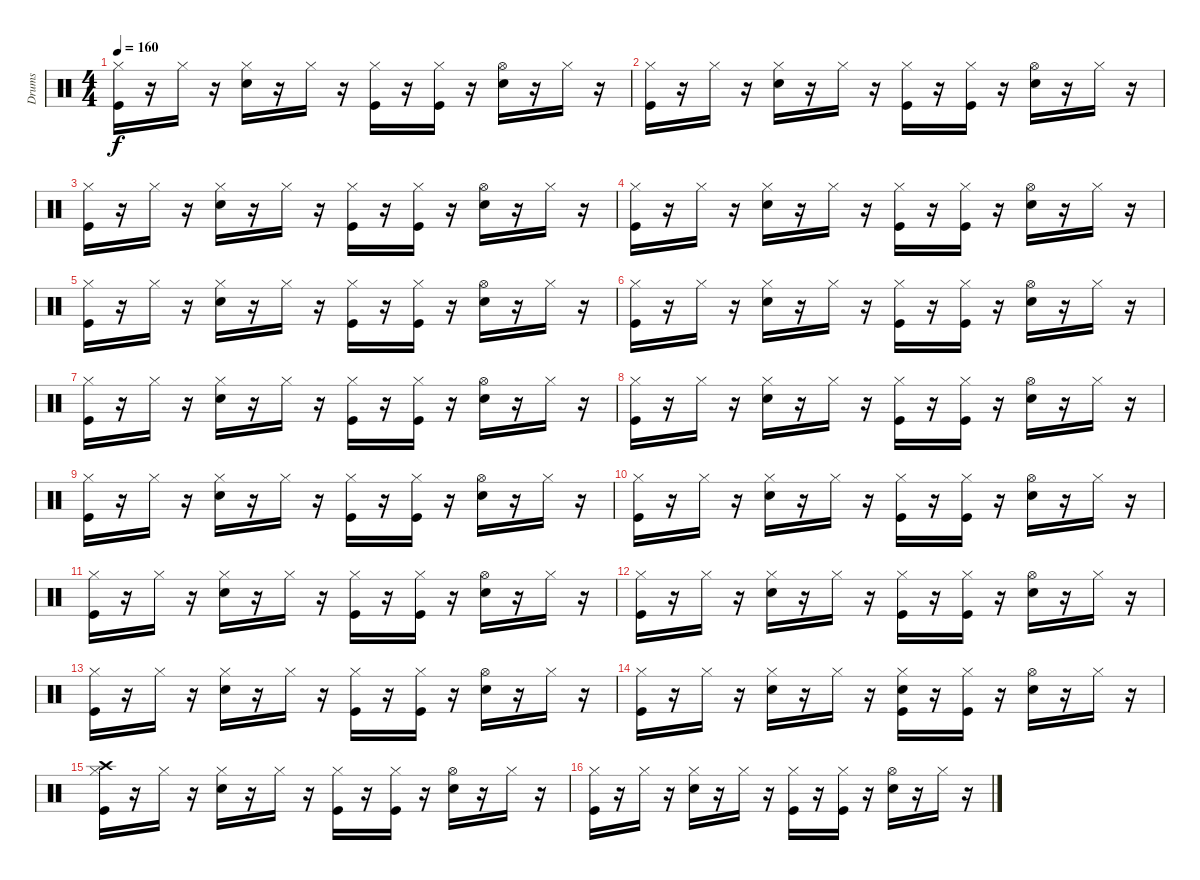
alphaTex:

\track ("Drums" "Drums") {instrument percussion}
\staff {score}
\articulation defaults
\ts (4 4)
\tempo 160
\clef neutral
\ks c
("Hi-Hat (closed)" "Kick (hit)").16{dy f} r.16 "Hi-Hat (closed)".16 r.16 ("Hi-Hat (closed)" "Snare (hit) 2").16 r.16 "Hi-Hat (closed)".16 r.16 ("Hi-Hat (closed)" "Kick (hit)").16 r.16 ("Kick (hit)" "Hi-Hat (closed)").16 r.16 ("Hi-Hat (open)" "Snare (hit) 2").16 r.16 "Hi-Hat (closed)".16 r.16 |
("Hi-Hat (closed)" "Kick (hit)").16 r.16 "Hi-Hat (closed)".16 r.16 ("Hi-Hat (closed)" "Snare (hit) 2").16 r.16 "Hi-Hat (closed)".16 r.16 ("Hi-Hat (closed)" "Kick (hit)").16 r.16 ("Kick (hit)" "Hi-Hat (closed)").16 r.16 ("Hi-Hat (open)" "Snare (hit) 2").16 r.16 "Hi-Hat (closed)".16 r.16 |
("Hi-Hat (closed)" "Kick (hit)").16 r.16 "Hi-Hat (closed)".16 r.16 ("Hi-Hat (closed)" "Snare (hit) 2").16 r.16 "Hi-Hat (closed)".16 r.16 ("Hi-Hat (closed)" "Kick (hit)").16 r.16 ("Kick (hit)" "Hi-Hat (closed)").16 r.16 ("Hi-Hat (open)" "Snare (hit) 2").16 r.16 "Hi-Hat (closed)".16 r.16 |
("Hi-Hat (closed)" "Kick (hit)").16 r.16 "Hi-Hat (closed)".16 r.16 ("Hi-Hat (closed)" "Snare (hit) 2").16 r.16 "Hi-Hat (closed)".16 r.16 ("Hi-Hat (closed)" "Kick (hit)").16 r.16 ("Kick (hit)" "Hi-Hat (closed)").16 r.16 ("Hi-Hat (open)" "Snare (hit) 2").16 r.16 "Hi-Hat (closed)".16 r.16 |
("Hi-Hat (closed)" "Kick (hit)").16 r.16 "Hi-Hat (closed)".16 r.16 ("Hi-Hat (closed)" "Snare (hit) 2").16 r.16 "Hi-Hat (closed)".16 r.16 ("Hi-Hat (closed)" "Kick (hit)").16 r.16 ("Kick (hit)" "Hi-Hat (closed)").16 r.16 ("Hi-Hat (open)" "Snare (hit) 2").16 r.16 "Hi-Hat (closed)".16 r.16 |
("Hi-Hat (closed)" "Kick (hit)").16 r.16 "Hi-Hat (closed)".16 r.16 ("Hi-Hat (closed)" "Snare (hit) 2").16 r.16 "Hi-Hat (closed)".16 r.16 ("Hi-Hat (closed)" "Kick (hit)").16 r.16 ("Kick (hit)" "Hi-Hat (closed)").16 r.16 ("Hi-Hat (open)" "Snare (hit) 2").16 r.16 "Hi-Hat (closed)".16 r.16 |
("Hi-Hat (closed)" "Kick (hit)").16 r.16 "Hi-Hat (closed)".16 r.16 ("Hi-Hat (closed)" "Snare (hit) 2").16 r.16 "Hi-Hat (closed)".16 r.16 ("Hi-Hat (closed)" "Kick (hit)").16 r.16 ("Kick (hit)" "Hi-Hat (closed)").16 r.16 ("Hi-Hat (open)" "Snare (hit) 2").16 r.16 "Hi-Hat (closed)".16 r.16 |
("Hi-Hat (closed)" "Kick (hit)").16 r.16 "Hi-Hat (closed)".16 r.16 ("Hi-Hat (closed)" "Snare (hit) 2").16 r.16 "Hi-Hat (closed)".16 r.16 ("Hi-Hat (closed)" "Kick (hit)").16 r.16 ("Kick (hit)" "Hi-Hat (closed)").16 r.16 ("Hi-Hat (open)" "Snare (hit) 2").16 r.16 "Hi-Hat (closed)".16 r.16 |
("Hi-Hat (closed)" "Kick (hit)").16 r.16 "Hi-Hat (closed)".16 r.16 ("Hi-Hat (closed)" "Snare (hit) 2").16 r.16 "Hi-Hat (closed)".16 r.16 ("Hi-Hat (closed)" "Kick (hit)").16 r.16 ("Kick (hit)" "Hi-Hat (closed)").16 r.16 ("Hi-Hat (open)" "Snare (hit) 2").16 r.16 "Hi-Hat (closed)".16 r.16 |
("Hi-Hat (closed)" "Kick (hit)").16 r.16 "Hi-Hat (closed)".16 r.16 ("Hi-Hat (closed)" "Snare (hit) 2").16 r.16 "Hi-Hat (closed)".16 r.16 ("Hi-Hat (closed)" "Kick (hit)").16 r.16 ("Kick (hit)" "Hi-Hat (closed)").16 r.16 ("Hi-Hat (open)" "Snare (hit) 2").16 r.16 "Hi-Hat (closed)".16 r.16 |
("Hi-Hat (closed)" "Kick (hit)").16 r.16 "Hi-Hat (closed)".16 r.16 ("Hi-Hat (closed)" "Snare (hit) 2").16 r.16 "Hi-Hat (closed)".16 r.16 ("Hi-Hat (closed)" "Kick (hit)").16 r.16 ("Kick (hit)" "Hi-Hat (closed)").16 r.16 ("Hi-Hat (open)" "Snare (hit) 2").16 r.16 "Hi-Hat (closed)".16 r.16 |
("Hi-Hat (closed)" "Kick (hit)").16 r.16 "Hi-Hat (closed)".16 r.16 ("Hi-Hat (closed)" "Snare (hit) 2").16 r.16 "Hi-Hat (closed)".16 r.16 ("Hi-Hat (closed)" "Kick (hit)").16 r.16 ("Kick (hit)" "Hi-Hat (closed)").16 r.16 ("Hi-Hat (open)" "Snare (hit) 2").16 r.16 "Hi-Hat (closed)".16 r.16 |
("Hi-Hat (closed)" "Kick (hit)").16 r.16 "Hi-Hat (closed)".16 r.16 ("Hi-Hat (closed)" "Snare (hit) 2").16 r.16 "Hi-Hat (closed)".16 r.16 ("Hi-Hat (closed)" "Kick (hit)").16 r.16 ("Kick (hit)" "Hi-Hat (closed)").16 r.16 ("Hi-Hat (open)" "Snare (hit) 2").16 r.16 "Hi-Hat (closed)".16 r.16 |
("Hi-Hat (closed)" "Kick (hit)").16 r.16 "Hi-Hat (closed)".16 r.16 ("Hi-Hat (closed)" "Snare (hit) 2").16 r.16 "Hi-Hat (closed)".16 r.16 ("Snare (hit) 2" "Hi-Hat (closed)" "Kick (hit)").16 r.16 ("Kick (hit)" "Hi-Hat (closed)").16 r.16 ("Hi-Hat (open)" "Snare (hit) 2").16 r.16 "Hi-Hat (closed)".16 r.16 |
("Crash high (hit)" "Hi-Hat (closed)" "Kick (hit)").16 r.16 "Hi-Hat (closed)".16 r.16 ("Hi-Hat (closed)" "Snare (hit) 2").16 r.16 "Hi-Hat (closed)".16 r.16 ("Hi-Hat (closed)" "Kick (hit)").16 r.16 ("Kick (hit)" "Hi-Hat (closed)").16 r.16 ("Hi-Hat (open)" "Snare (hit) 2").16 r.16 "Hi-Hat (closed)".16 r.16 |
("Hi-Hat (closed)" "Kick (hit)").16 r.16 "Hi-Hat (closed)".16 r.16 ("Hi-Hat (closed)" "Snare (hit) 2").16 r.16 "Hi-Hat (closed)".16 r.16 ("Hi-Hat (closed)" "Kick (hit)").16 r.16 ("Kick (hit)" "Hi-Hat (closed)").16 r.16 ("Hi-Hat (open)" "Snare (hit) 2").16 r.16 "Hi-Hat (closed)".16 r.16
